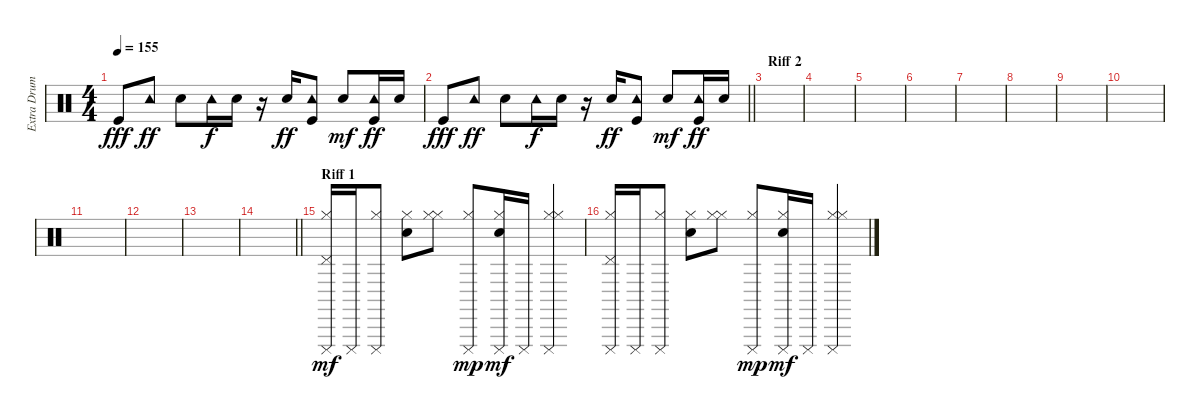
\track ("Extra Drums" "Extra Drum") {instrument percussion}
\staff {score}
\articulation defaults
\ts (4 4)
\tempo 155
\clef neutral
\ks c "Kick (hit)".8{dy fff} "Tambourine (hit)".8{dy ff} "Electric Snare (hit)".8 "Tambourine (hit)".16{dy f} "Electric Snare (hit)".16
r.16 "Electric Snare (hit)".16{dy ff} ("Kick (hit)" "Tambourine (hit)").8 "Electric Snare (hit)".8{dy mf} ("Kick (hit)" "Tambourine (hit)").16{dy ff} "Electric Snare (hit)".16 |
\barLineRight lightlight "Kick (hit)".8{dy fff} "Tambourine (hit)".8{dy ff} "Electric Snare (hit)".8 "Tambourine (hit)".16{dy f} "Electric Snare (hit)".16
r.16 "Electric Snare (hit)".16{dy ff} ("Kick (hit)" "Tambourine (hit)").8 "Electric Snare (hit)".8{dy mf} ("Kick (hit)" "Tambourine (hit)").16{dy ff} "Electric Snare (hit)".16 |
\section ("" "Riff 2")
|
|
|
|
|
|
|
|
|
|
|
\barLineRight lightlight
|
\section ("" "Riff 1")
("Hi-Hat (closed)" "Pedal Hi-Hat (hit)" "Cuica (mute)").16{dy mf} "Cuica (mute)".16 ("Hi-Hat (closed)" "Cuica (mute)").8 ("Electric Snare (hit)" "Hi-Hat (closed)").8 ("Hi-Hat (closed)" "Hi-Hat (closed)").8 ("Hi-Hat (closed)" "Cuica (mute)").8{dy mp} ("Electric Snare (hit)" "Hi-Hat (closed)" "Cuica (mute)").16{dy mf} "Cuica (mute)".16 ("Hi-Hat (closed)" "Hi-Hat (closed)" "Cuica (mute)").4 |
("Hi-Hat (closed)" "Pedal Hi-Hat (hit)" "Cuica (mute)").16 "Cuica (mute)".16 ("Hi-Hat (closed)" "Cuica (mute)").8 ("Electric Snare (hit)" "Hi-Hat (closed)").8 ("Hi-Hat (closed)" "Hi-Hat (closed)").8 ("Hi-Hat (closed)" "Cuica (mute)").8{dy mp} ("Electric Snare (hit)" "Hi-Hat (closed)" "Cuica (mute)").16{dy mf} "Cuica (mute)".16 ("Hi-Hat (closed)" "Hi-Hat (closed)" "Cuica (mute)").4
